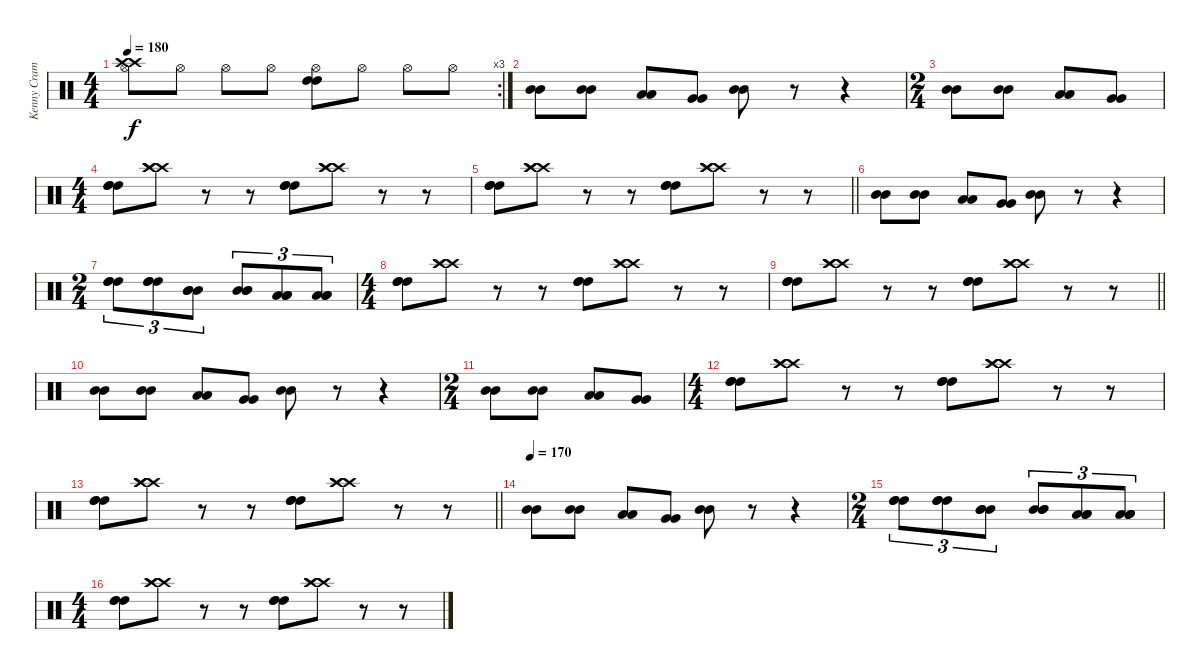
\track ("Kenny Cramme" "Kenny Cram") {instrument percussion}
\staff {score}
\articulation defaults
\rc 3
\ts (4 4)
\tempo 180
\clef neutral
\ks c
("Crash high (hit)" "Crash high (hit)" "Hi-Hat (open)").8{dy f} "Hi-Hat (open)".8 "Hi-Hat (open)".8 "Hi-Hat (open)".8 ("High Tom (hit)" "High Tom (hit)" "Hi-Hat (open)").8 "Hi-Hat (open)".8 "Hi-Hat (open)".8 "Hi-Hat (open)".8 |
("Mid Tom (hit)" "Mid Tom (hit)").8 ("Mid Tom (hit)" "Mid Tom (hit)").8 ("Low Tom (hit)" "Low Tom (hit)").8 ("Very Low Tom (hit)" "Very Low Tom (hit)").8 ("Mid Tom (hit)" "Mid Tom (hit)").8 r.8 r.4 |
\ts (2 4)
("Mid Tom (hit)" "Mid Tom (hit)").8 ("Mid Tom (hit)" "Mid Tom (hit)").8 ("Low Tom (hit)" "Low Tom (hit)").8 ("Very Low Tom (hit)" "Very Low Tom (hit)").8 |
\ts (4 4)
("High Tom (hit)" "High Tom (hit)" "High Tom (hit)").8 ("Crash high (hit)" "Crash high (hit)" "Crash high (hit)").8 r.8 r.8 ("High Tom (hit)" "High Tom (hit)" "High Tom (hit)").8 ("Crash high (hit)" "Crash high (hit)" "Crash high (hit)").8 r.8 r.8 |
\barLineRight lightlight
("High Tom (hit)" "High Tom (hit)" "High Tom (hit)").8 ("Crash high (hit)" "Crash high (hit)" "Crash high (hit)").8 r.8 r.8 ("High Tom (hit)" "High Tom (hit)" "High Tom (hit)").8 ("Crash high (hit)" "Crash high (hit)" "Crash high (hit)").8 r.8 r.8 |
("Mid Tom (hit)" "Mid Tom (hit)").8 ("Mid Tom (hit)" "Mid Tom (hit)").8 ("Low Tom (hit)" "Low Tom (hit)").8 ("Very Low Tom (hit)" "Very Low Tom (hit)").8 ("Mid Tom (hit)" "Mid Tom (hit)").8 r.8 r.4 |
\ts (2 4)
("High Tom (hit)" "High Tom (hit)" "High Tom (hit)").8{tu (3 2)} ("High Tom (hit)" "High Tom (hit)" "High Tom (hit)").8{tu (3 2)} ("Mid Tom (hit)" "Mid Tom (hit)" "Mid Tom (hit)").8{tu (3 2)} ("Mid Tom (hit)" "Mid Tom (hit)" "Mid Tom (hit)").8{tu (3 2)} ("Low Tom (hit)" "Low Tom (hit)" "Low Tom (hit)").8{tu (3 2)} ("Low Tom (hit)" "Low Tom (hit)" "Low Tom (hit)").8{tu (3 2)} |
\ts (4 4)
("High Tom (hit)" "High Tom (hit)" "High Tom (hit)").8 ("Crash high (hit)" "Crash high (hit)" "Crash high (hit)").8 r.8 r.8 ("High Tom (hit)" "High Tom (hit)" "High Tom (hit)").8 ("Crash high (hit)" "Crash high (hit)" "Crash high (hit)").8 r.8 r.8 |
\barLineRight lightlight
("High Tom (hit)" "High Tom (hit)" "High Tom (hit)").8 ("Crash high (hit)" "Crash high (hit)" "Crash high (hit)").8 r.8 r.8 ("High Tom (hit)" "High Tom (hit)" "High Tom (hit)").8 ("Crash high (hit)" "Crash high (hit)" "Crash high (hit)").8 r.8 r.8 |
("Mid Tom (hit)" "Mid Tom (hit)").8 ("Mid Tom (hit)" "Mid Tom (hit)").8 ("Low Tom (hit)" "Low Tom (hit)").8 ("Very Low Tom (hit)" "Very Low Tom (hit)").8 ("Mid Tom (hit)" "Mid Tom (hit)").8 r.8 r.4 |
\ts (2 4)
("Mid Tom (hit)" "Mid Tom (hit)").8 ("Mid Tom (hit)" "Mid Tom (hit)").8 ("Low Tom (hit)" "Low Tom (hit)").8 ("Very Low Tom (hit)" "Very Low Tom (hit)").8 |
\ts (4 4)
("High Tom (hit)" "High Tom (hit)" "High Tom (hit)").8 ("Crash high (hit)" "Crash high (hit)" "Crash high (hit)").8 r.8 r.8 ("High Tom (hit)" "High Tom (hit)" "High Tom (hit)").8 ("Crash high (hit)" "Crash high (hit)" "Crash high (hit)").8 r.8 r.8 |
\barLineRight lightlight
("High Tom (hit)" "High Tom (hit)" "High Tom (hit)").8 ("Crash high (hit)" "Crash high (hit)" "Crash high (hit)").8 r.8 r.8 ("High Tom (hit)" "High Tom (hit)" "High Tom (hit)").8 ("Crash high (hit)" "Crash high (hit)" "Crash high (hit)").8 r.8 r.8 |
\tempo 170
("Mid Tom (hit)" "Mid Tom (hit)").8 ("Mid Tom (hit)" "Mid Tom (hit)").8 ("Low Tom (hit)" "Low Tom (hit)").8 ("Very Low Tom (hit)" "Very Low Tom (hit)").8 ("Mid Tom (hit)" "Mid Tom (hit)").8 r.8 r.4 |
\ts (2 4)
("High Tom (hit)" "High Tom (hit)" "High Tom (hit)").8{tu (3 2)} ("High Tom (hit)" "High Tom (hit)" "High Tom (hit)").8{tu (3 2)} ("Mid Tom (hit)" "Mid Tom (hit)" "Mid Tom (hit)").8{tu (3 2)} ("Mid Tom (hit)" "Mid Tom (hit)" "Mid Tom (hit)").8{tu (3 2)} ("Low Tom (hit)" "Low Tom (hit)" "Low Tom (hit)").8{tu (3 2)} ("Low Tom (hit)" "Low Tom (hit)" "Low Tom (hit)").8{tu (3 2)} |
\ts (4 4)
("High Tom (hit)" "High Tom (hit)" "High Tom (hit)").8 ("Crash high (hit)" "Crash high (hit)" "Crash high (hit)").8 r.8 r.8 ("High Tom (hit)" "High Tom (hit)" "High Tom (hit)").8 ("Crash high (hit)" "Crash high (hit)" "Crash high (hit)").8 r.8 r.8
